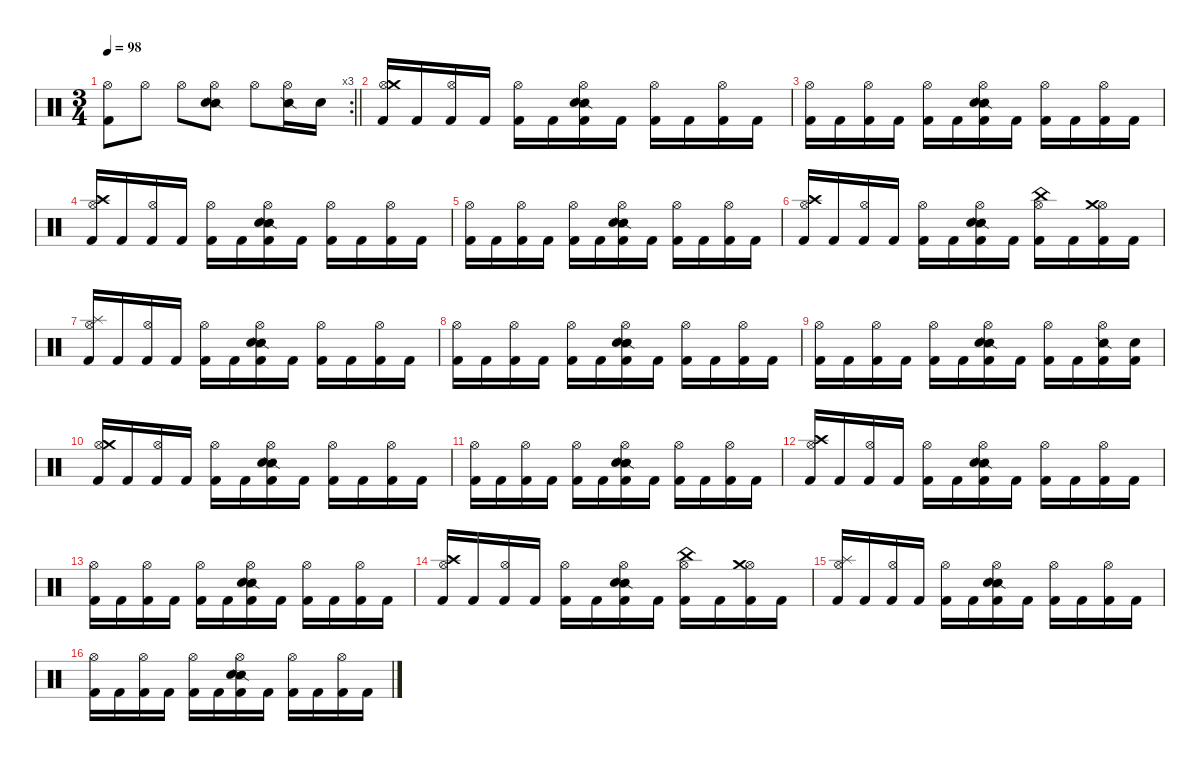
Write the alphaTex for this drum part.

\defaultSystemsLayout 4
\hideDynamics
\bracketExtendMode nobrackets
\singleTrackTrackNamePolicy hidden
\multiTrackTrackNamePolicy hidden
\firstSystemTrackNameMode fullname
\firstSystemTrackNameOrientation horizontal
\otherSystemsTrackNameOrientation horizontal
\track ("Drums" "drm.") {defaultSystemsLayout 4 instrument percussion}
\staff {score}
\articulation defaults
\rc 3
\ts (3 4)
\tempo 98
\clef neutral
\barLineRight lightlight
\ks c
("Hi-Hat (open)" "Kick (hit) 2").8{dy ff beam Down} "Hi-Hat (open)".8{beam Down} "Hi-Hat (open)".8{beam Down} ("Hi-Hat (open)" "Snare (side stick) 2" "Snare (hit) 2").8{beam Down} "Hi-Hat (open)".8{beam Down} ("Hi-Hat (open)" "Snare (side stick) 2").16{beam Down} "Snare (hit) 2".16{dy fff beam Down} |
("Hi-Hat (open)" "Crash medium (hit)" "Kick (hit) 2").16{dy ff beam Up} "Kick (hit) 2".16{dy f beam Up} ("Hi-Hat (open)" "Kick (hit) 2").16{dy ff beam Up} "Kick (hit) 2".16{dy f beam Up} ("Hi-Hat (open)" "Kick (hit) 2").16{dy ff beam Down} "Kick (hit) 2".16{dy f beam Down} ("Hi-Hat (open)" "Snare (side stick) 2" "Snare (hit) 2" "Kick (hit) 2").16{dy ff beam Down} "Kick (hit) 2".16{dy f beam Down} ("Hi-Hat (open)" "Kick (hit) 2").16{dy ff beam Down} "Kick (hit) 2".16{dy f beam Down} ("Hi-Hat (open)" "Kick (hit) 2").16{dy ff beam Down} "Kick (hit) 2".16{dy f beam Down} |
("Hi-Hat (open)" "Kick (hit) 2").16{dy ff beam Down} "Kick (hit) 2".16{dy f beam Down} ("Hi-Hat (open)" "Kick (hit) 2").16{dy ff beam Down} "Kick (hit) 2".16{dy f beam Down} ("Hi-Hat (open)" "Kick (hit) 2").16{dy ff beam Down} "Kick (hit) 2".16{dy f beam Down} ("Hi-Hat (open)" "Snare (side stick) 2" "Snare (hit) 2" "Kick (hit) 2").16{dy ff beam Down} "Kick (hit) 2".16{dy f beam Down} ("Hi-Hat (open)" "Kick (hit) 2").16{dy ff beam Down} "Kick (hit) 2".16{dy f beam Down} ("Hi-Hat (open)" "Kick (hit) 2").16{dy ff beam Down} "Kick (hit) 2".16{dy f beam Down} |
("Hi-Hat (open)" "Crash high (hit)" "Kick (hit) 2").16{dy ff beam Up} "Kick (hit) 2".16{dy f beam Up} ("Hi-Hat (open)" "Kick (hit) 2").16{dy ff beam Up} "Kick (hit) 2".16{dy f beam Up} ("Hi-Hat (open)" "Kick (hit) 2").16{dy ff beam Down} "Kick (hit) 2".16{dy f beam Down} ("Hi-Hat (open)" "Snare (side stick) 2" "Snare (hit) 2" "Kick (hit) 2").16{dy ff beam Down} "Kick (hit) 2".16{dy f beam Down} ("Hi-Hat (open)" "Kick (hit) 2").16{dy ff beam Down} "Kick (hit) 2".16{dy f beam Down} ("Hi-Hat (open)" "Kick (hit) 2").16{dy ff beam Down} "Kick (hit) 2".16{dy f beam Down} |
("Hi-Hat (open)" "Kick (hit) 2").16{dy ff beam Down} "Kick (hit) 2".16{dy f beam Down} ("Hi-Hat (open)" "Kick (hit) 2").16{dy ff beam Down} "Kick (hit) 2".16{dy f beam Down} ("Hi-Hat (open)" "Kick (hit) 2").16{dy ff beam Down} "Kick (hit) 2".16{dy f beam Down} ("Hi-Hat (open)" "Snare (side stick) 2" "Snare (hit) 2" "Kick (hit) 2").16{dy ff beam Down} "Kick (hit) 2".16{dy f beam Down} ("Hi-Hat (open)" "Kick (hit) 2").16{dy ff beam Down} "Kick (hit) 2".16{dy f beam Down} ("Hi-Hat (open)" "Kick (hit) 2").16{dy ff beam Down} "Kick (hit) 2".16{dy f beam Down} |
("Hi-Hat (open)" "Crash high (hit)" "Kick (hit) 2").16{dy ff beam Up} "Kick (hit) 2".16{dy f beam Up} ("Hi-Hat (open)" "Kick (hit) 2").16{dy ff beam Up} "Kick (hit) 2".16{dy f beam Up} ("Hi-Hat (open)" "Kick (hit) 2").16{dy ff beam Down} "Kick (hit) 2".16{dy f beam Down} ("Hi-Hat (open)" "Snare (side stick) 2" "Snare (hit) 2" "Kick (hit) 2").16{dy ff beam Down} "Kick (hit) 2".16{dy f beam Down} ("Hi-Hat (open)" "China (hit)" "Kick (hit) 2").16{dy fff beam Down} "Kick (hit) 2".16{dy f beam Down} ("Hi-Hat (open)" "Crash medium (hit)" "Kick (hit) 2").16{dy ff beam Down} "Kick (hit) 2".16{dy f beam Down} |
("Hi-Hat (open)" "Splash (hit)" "Kick (hit) 2").16{dy ff beam Up} "Kick (hit) 2".16{dy f beam Up} ("Hi-Hat (open)" "Kick (hit) 2").16{dy ff beam Up} "Kick (hit) 2".16{dy f beam Up} ("Hi-Hat (open)" "Kick (hit) 2").16{dy ff beam Down} "Kick (hit) 2".16{dy f beam Down} ("Hi-Hat (open)" "Snare (side stick) 2" "Snare (hit) 2" "Kick (hit) 2").16{dy ff beam Down} "Kick (hit) 2".16{dy f beam Down} ("Hi-Hat (open)" "Kick (hit) 2").16{dy ff beam Down} "Kick (hit) 2".16{dy f beam Down} ("Hi-Hat (open)" "Kick (hit) 2").16{dy ff beam Down} "Kick (hit) 2".16{dy f beam Down} |
("Hi-Hat (open)" "Kick (hit) 2").16{dy ff beam Down} "Kick (hit) 2".16{dy f beam Down} ("Hi-Hat (open)" "Kick (hit) 2").16{dy ff beam Down} "Kick (hit) 2".16{dy f beam Down} ("Hi-Hat (open)" "Kick (hit) 2").16{dy ff beam Down} "Kick (hit) 2".16{dy f beam Down} ("Hi-Hat (open)" "Snare (side stick) 2" "Snare (hit) 2" "Kick (hit) 2").16{dy ff beam Down} "Kick (hit) 2".16{dy f beam Down} ("Hi-Hat (open)" "Kick (hit) 2").16{dy ff beam Down} "Kick (hit) 2".16{dy f beam Down} ("Hi-Hat (open)" "Kick (hit) 2").16{dy ff beam Down} "Kick (hit) 2".16{dy f beam Down} |
("Hi-Hat (open)" "Kick (hit) 2").16{dy ff beam Down} "Kick (hit) 2".16{dy f beam Down} ("Hi-Hat (open)" "Kick (hit) 2").16{dy ff beam Down} "Kick (hit) 2".16{dy f beam Down} ("Hi-Hat (open)" "Kick (hit) 2").16{dy ff beam Down} "Kick (hit) 2".16{dy f beam Down} ("Hi-Hat (open)" "Snare (side stick) 2" "Snare (hit) 2" "Kick (hit) 2").16{dy ff beam Down} "Kick (hit) 2".16{dy f beam Down} ("Hi-Hat (open)" "Kick (hit) 2").16{dy ff beam Down} "Kick (hit) 2".16{dy f beam Down} ("Hi-Hat (open)" "Snare (side stick) 2" "Kick (hit) 2").16{dy ff beam Down} ("Snare (hit) 2" "Kick (hit) 2").16{dy fff beam Down} |
("Hi-Hat (open)" "Crash medium (hit)" "Kick (hit) 2").16{dy ff beam Up} "Kick (hit) 2".16{dy f beam Up} ("Hi-Hat (open)" "Kick (hit) 2").16{dy ff beam Up} "Kick (hit) 2".16{dy f beam Up} ("Hi-Hat (open)" "Kick (hit) 2").16{dy ff beam Down} "Kick (hit) 2".16{dy f beam Down} ("Hi-Hat (open)" "Snare (side stick) 2" "Snare (hit) 2" "Kick (hit) 2").16{dy ff beam Down} "Kick (hit) 2".16{dy f beam Down} ("Hi-Hat (open)" "Kick (hit) 2").16{dy ff beam Down} "Kick (hit) 2".16{dy f beam Down} ("Hi-Hat (open)" "Kick (hit) 2").16{dy ff beam Down} "Kick (hit) 2".16{dy f beam Down} |
("Hi-Hat (open)" "Kick (hit) 2").16{dy ff beam Down} "Kick (hit) 2".16{dy f beam Down} ("Hi-Hat (open)" "Kick (hit) 2").16{dy ff beam Down} "Kick (hit) 2".16{dy f beam Down} ("Hi-Hat (open)" "Kick (hit) 2").16{dy ff beam Down} "Kick (hit) 2".16{dy f beam Down} ("Hi-Hat (open)" "Snare (side stick) 2" "Snare (hit) 2" "Kick (hit) 2").16{dy ff beam Down} "Kick (hit) 2".16{dy f beam Down} ("Hi-Hat (open)" "Kick (hit) 2").16{dy ff beam Down} "Kick (hit) 2".16{dy f beam Down} ("Hi-Hat (open)" "Kick (hit) 2").16{dy ff beam Down} "Kick (hit) 2".16{dy f beam Down} |
("Hi-Hat (open)" "Crash high (hit)" "Kick (hit) 2").16{dy ff beam Up} "Kick (hit) 2".16{dy f beam Up} ("Hi-Hat (open)" "Kick (hit) 2").16{dy ff beam Up} "Kick (hit) 2".16{dy f beam Up} ("Hi-Hat (open)" "Kick (hit) 2").16{dy ff beam Down} "Kick (hit) 2".16{dy f beam Down} ("Hi-Hat (open)" "Snare (side stick) 2" "Snare (hit) 2" "Kick (hit) 2").16{dy ff beam Down} "Kick (hit) 2".16{dy f beam Down} ("Hi-Hat (open)" "Kick (hit) 2").16{dy ff beam Down} "Kick (hit) 2".16{dy f beam Down} ("Hi-Hat (open)" "Kick (hit) 2").16{dy ff beam Down} "Kick (hit) 2".16{dy f beam Down} |
("Hi-Hat (open)" "Kick (hit) 2").16{dy ff beam Down} "Kick (hit) 2".16{dy f beam Down} ("Hi-Hat (open)" "Kick (hit) 2").16{dy ff beam Down} "Kick (hit) 2".16{dy f beam Down} ("Hi-Hat (open)" "Kick (hit) 2").16{dy ff beam Down} "Kick (hit) 2".16{dy f beam Down} ("Hi-Hat (open)" "Snare (side stick) 2" "Snare (hit) 2" "Kick (hit) 2").16{dy ff beam Down} "Kick (hit) 2".16{dy f beam Down} ("Hi-Hat (open)" "Kick (hit) 2").16{dy ff beam Down} "Kick (hit) 2".16{dy f beam Down} ("Hi-Hat (open)" "Kick (hit) 2").16{dy ff beam Down} "Kick (hit) 2".16{dy f beam Down} |
("Hi-Hat (open)" "Crash high (hit)" "Kick (hit) 2").16{dy ff beam Up} "Kick (hit) 2".16{dy f beam Up} ("Hi-Hat (open)" "Kick (hit) 2").16{dy ff beam Up} "Kick (hit) 2".16{dy f beam Up} ("Hi-Hat (open)" "Kick (hit) 2").16{dy ff beam Down} "Kick (hit) 2".16{dy f beam Down} ("Hi-Hat (open)" "Snare (side stick) 2" "Snare (hit) 2" "Kick (hit) 2").16{dy ff beam Down} "Kick (hit) 2".16{dy f beam Down} ("Hi-Hat (open)" "China (hit)" "Kick (hit) 2").16{dy fff beam Down} "Kick (hit) 2".16{dy f beam Down} ("Hi-Hat (open)" "Crash medium (hit)" "Kick (hit) 2").16{dy ff beam Down} "Kick (hit) 2".16{dy f beam Down} |
("Hi-Hat (open)" "Splash (hit)" "Kick (hit) 2").16{dy ff beam Up} "Kick (hit) 2".16{dy f beam Up} ("Hi-Hat (open)" "Kick (hit) 2").16{dy ff beam Up} "Kick (hit) 2".16{dy f beam Up} ("Hi-Hat (open)" "Kick (hit) 2").16{dy ff beam Down} "Kick (hit) 2".16{dy f beam Down} ("Hi-Hat (open)" "Snare (side stick) 2" "Snare (hit) 2" "Kick (hit) 2").16{dy ff beam Down} "Kick (hit) 2".16{dy f beam Down} ("Hi-Hat (open)" "Kick (hit) 2").16{dy ff beam Down} "Kick (hit) 2".16{dy f beam Down} ("Hi-Hat (open)" "Kick (hit) 2").16{dy ff beam Down} "Kick (hit) 2".16{dy f beam Down} |
("Hi-Hat (open)" "Kick (hit) 2").16{dy ff beam Down} "Kick (hit) 2".16{dy f beam Down} ("Hi-Hat (open)" "Kick (hit) 2").16{dy ff beam Down} "Kick (hit) 2".16{dy f beam Down} ("Hi-Hat (open)" "Kick (hit) 2").16{dy ff beam Down} "Kick (hit) 2".16{dy f beam Down} ("Hi-Hat (open)" "Snare (side stick) 2" "Snare (hit) 2" "Kick (hit) 2").16{dy ff beam Down} "Kick (hit) 2".16{dy f beam Down} ("Hi-Hat (open)" "Kick (hit) 2").16{dy ff beam Down} "Kick (hit) 2".16{dy f beam Down} ("Hi-Hat (open)" "Kick (hit) 2").16{dy ff beam Down} "Kick (hit) 2".16{dy f beam Down}
